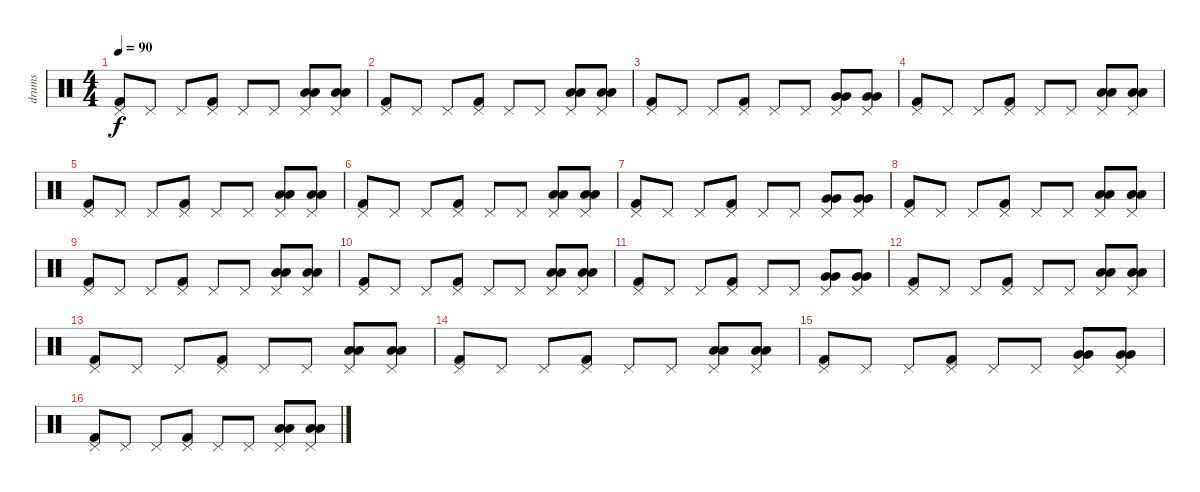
\track ("drums" "drums") {instrument percussion}
\staff {score}
\articulation defaults
\ts (4 4)
\tempo 90
\clef neutral
\ks c
("Kick (hit) 2" "Pedal Hi-Hat (hit)").8{dy f} "Pedal Hi-Hat (hit)".8 "Pedal Hi-Hat (hit)".8 ("Kick (hit) 2" "Pedal Hi-Hat (hit)").8 "Pedal Hi-Hat (hit)".8 "Pedal Hi-Hat (hit)".8 ("Low Floor Tom (hit)" "Low Floor Tom (hit)" "Pedal Hi-Hat (hit)").8 ("Low Floor Tom (hit)" "Low Floor Tom (hit)" "Pedal Hi-Hat (hit)").8 |
("Kick (hit) 2" "Pedal Hi-Hat (hit)").8 "Pedal Hi-Hat (hit)".8 "Pedal Hi-Hat (hit)".8 ("Kick (hit) 2" "Pedal Hi-Hat (hit)").8 "Pedal Hi-Hat (hit)".8 "Pedal Hi-Hat (hit)".8 ("Low Tom (hit)" "Low Tom (hit)" "Pedal Hi-Hat (hit)").8 ("Low Tom (hit)" "Low Tom (hit)" "Pedal Hi-Hat (hit)").8 |
("Kick (hit) 2" "Pedal Hi-Hat (hit)").8 "Pedal Hi-Hat (hit)".8 "Pedal Hi-Hat (hit)".8 ("Kick (hit) 2" "Pedal Hi-Hat (hit)").8 "Pedal Hi-Hat (hit)".8 "Pedal Hi-Hat (hit)".8 ("Very Low Tom (hit)" "Very Low Tom (hit)" "Pedal Hi-Hat (hit)").8 ("Very Low Tom (hit)" "Very Low Tom (hit)" "Pedal Hi-Hat (hit)").8 |
("Kick (hit) 2" "Pedal Hi-Hat (hit)").8 "Pedal Hi-Hat (hit)".8 "Pedal Hi-Hat (hit)".8 ("Kick (hit) 2" "Pedal Hi-Hat (hit)").8 "Pedal Hi-Hat (hit)".8 "Pedal Hi-Hat (hit)".8 ("Low Tom (hit)" "Low Tom (hit)" "Pedal Hi-Hat (hit)").8 ("Low Tom (hit)" "Low Tom (hit)" "Pedal Hi-Hat (hit)").8 |
("Kick (hit) 2" "Pedal Hi-Hat (hit)").8 "Pedal Hi-Hat (hit)".8 "Pedal Hi-Hat (hit)".8 ("Kick (hit) 2" "Pedal Hi-Hat (hit)").8 "Pedal Hi-Hat (hit)".8 "Pedal Hi-Hat (hit)".8 ("Low Floor Tom (hit)" "Low Floor Tom (hit)" "Pedal Hi-Hat (hit)").8 ("Low Floor Tom (hit)" "Low Floor Tom (hit)" "Pedal Hi-Hat (hit)").8 |
("Kick (hit) 2" "Pedal Hi-Hat (hit)").8 "Pedal Hi-Hat (hit)".8 "Pedal Hi-Hat (hit)".8 ("Kick (hit) 2" "Pedal Hi-Hat (hit)").8 "Pedal Hi-Hat (hit)".8 "Pedal Hi-Hat (hit)".8 ("Low Tom (hit)" "Low Tom (hit)" "Pedal Hi-Hat (hit)").8 ("Low Tom (hit)" "Low Tom (hit)" "Pedal Hi-Hat (hit)").8 |
("Kick (hit) 2" "Pedal Hi-Hat (hit)").8 "Pedal Hi-Hat (hit)".8 "Pedal Hi-Hat (hit)".8 ("Kick (hit) 2" "Pedal Hi-Hat (hit)").8 "Pedal Hi-Hat (hit)".8 "Pedal Hi-Hat (hit)".8 ("Very Low Tom (hit)" "Very Low Tom (hit)" "Pedal Hi-Hat (hit)").8 ("Very Low Tom (hit)" "Very Low Tom (hit)" "Pedal Hi-Hat (hit)").8 |
("Kick (hit) 2" "Pedal Hi-Hat (hit)").8 "Pedal Hi-Hat (hit)".8 "Pedal Hi-Hat (hit)".8 ("Kick (hit) 2" "Pedal Hi-Hat (hit)").8 "Pedal Hi-Hat (hit)".8 "Pedal Hi-Hat (hit)".8 ("Low Tom (hit)" "Low Tom (hit)" "Pedal Hi-Hat (hit)").8 ("Low Tom (hit)" "Low Tom (hit)" "Pedal Hi-Hat (hit)").8 |
("Kick (hit) 2" "Pedal Hi-Hat (hit)").8 "Pedal Hi-Hat (hit)".8 "Pedal Hi-Hat (hit)".8 ("Kick (hit) 2" "Pedal Hi-Hat (hit)").8 "Pedal Hi-Hat (hit)".8 "Pedal Hi-Hat (hit)".8 ("Low Floor Tom (hit)" "Low Floor Tom (hit)" "Pedal Hi-Hat (hit)").8 ("Low Floor Tom (hit)" "Low Floor Tom (hit)" "Pedal Hi-Hat (hit)").8 |
("Kick (hit) 2" "Pedal Hi-Hat (hit)").8 "Pedal Hi-Hat (hit)".8 "Pedal Hi-Hat (hit)".8 ("Kick (hit) 2" "Pedal Hi-Hat (hit)").8 "Pedal Hi-Hat (hit)".8 "Pedal Hi-Hat (hit)".8 ("Low Tom (hit)" "Low Tom (hit)" "Pedal Hi-Hat (hit)").8 ("Low Tom (hit)" "Low Tom (hit)" "Pedal Hi-Hat (hit)").8 |
("Kick (hit) 2" "Pedal Hi-Hat (hit)").8 "Pedal Hi-Hat (hit)".8 "Pedal Hi-Hat (hit)".8 ("Kick (hit) 2" "Pedal Hi-Hat (hit)").8 "Pedal Hi-Hat (hit)".8 "Pedal Hi-Hat (hit)".8 ("Very Low Tom (hit)" "Very Low Tom (hit)" "Pedal Hi-Hat (hit)").8 ("Very Low Tom (hit)" "Very Low Tom (hit)" "Pedal Hi-Hat (hit)").8 |
("Kick (hit) 2" "Pedal Hi-Hat (hit)").8 "Pedal Hi-Hat (hit)".8 "Pedal Hi-Hat (hit)".8 ("Kick (hit) 2" "Pedal Hi-Hat (hit)").8 "Pedal Hi-Hat (hit)".8 "Pedal Hi-Hat (hit)".8 ("Low Tom (hit)" "Low Tom (hit)" "Pedal Hi-Hat (hit)").8 ("Low Tom (hit)" "Low Tom (hit)" "Pedal Hi-Hat (hit)").8 |
("Kick (hit) 2" "Pedal Hi-Hat (hit)").8 "Pedal Hi-Hat (hit)".8 "Pedal Hi-Hat (hit)".8 ("Kick (hit) 2" "Pedal Hi-Hat (hit)").8 "Pedal Hi-Hat (hit)".8 "Pedal Hi-Hat (hit)".8 ("Low Floor Tom (hit)" "Low Floor Tom (hit)" "Pedal Hi-Hat (hit)").8 ("Low Floor Tom (hit)" "Low Floor Tom (hit)" "Pedal Hi-Hat (hit)").8 |
("Kick (hit) 2" "Pedal Hi-Hat (hit)").8 "Pedal Hi-Hat (hit)".8 "Pedal Hi-Hat (hit)".8 ("Kick (hit) 2" "Pedal Hi-Hat (hit)").8 "Pedal Hi-Hat (hit)".8 "Pedal Hi-Hat (hit)".8 ("Low Tom (hit)" "Low Tom (hit)" "Pedal Hi-Hat (hit)").8 ("Low Tom (hit)" "Low Tom (hit)" "Pedal Hi-Hat (hit)").8 |
("Kick (hit) 2" "Pedal Hi-Hat (hit)").8 "Pedal Hi-Hat (hit)".8 "Pedal Hi-Hat (hit)".8 ("Kick (hit) 2" "Pedal Hi-Hat (hit)").8 "Pedal Hi-Hat (hit)".8 "Pedal Hi-Hat (hit)".8 ("Very Low Tom (hit)" "Very Low Tom (hit)" "Pedal Hi-Hat (hit)").8 ("Very Low Tom (hit)" "Very Low Tom (hit)" "Pedal Hi-Hat (hit)").8 |
("Kick (hit) 2" "Pedal Hi-Hat (hit)").8 "Pedal Hi-Hat (hit)".8 "Pedal Hi-Hat (hit)".8 ("Kick (hit) 2" "Pedal Hi-Hat (hit)").8 "Pedal Hi-Hat (hit)".8 "Pedal Hi-Hat (hit)".8 ("Low Tom (hit)" "Low Tom (hit)" "Pedal Hi-Hat (hit)").8 ("Low Tom (hit)" "Low Tom (hit)" "Pedal Hi-Hat (hit)").8
